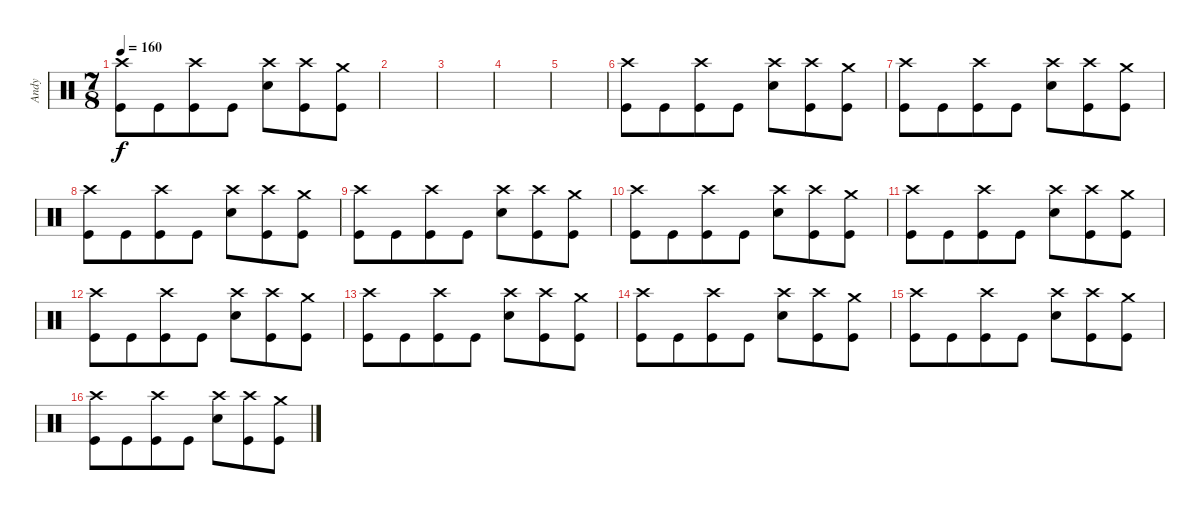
\track ("Andy" "Andy") {instrument percussion}
\staff {score}
\articulation defaults
\ts (7 8)
\tempo 160
\clef neutral
\ks c
("Kick (hit)" "Crash high (hit)").8{dy f} "Kick (hit)".8 ("Kick (hit)" "Crash high (hit)").8 "Kick (hit)".8 ("Snare (hit) 2" "Crash high (hit)").8 ("Kick (hit)" "Crash high (hit)").8 ("Kick (hit)" "Crash medium (hit)").8 |
|
|
|
|
("Kick (hit)" "Crash high (hit)").8 "Kick (hit)".8 ("Kick (hit)" "Crash high (hit)").8 "Kick (hit)".8 ("Snare (hit) 2" "Crash high (hit)").8 ("Kick (hit)" "Crash high (hit)").8 ("Kick (hit)" "Crash medium (hit)").8 |
("Kick (hit)" "Crash high (hit)").8 "Kick (hit)".8 ("Kick (hit)" "Crash high (hit)").8 "Kick (hit)".8 ("Snare (hit) 2" "Crash high (hit)").8 ("Kick (hit)" "Crash high (hit)").8 ("Kick (hit)" "Crash medium (hit)").8 |
("Kick (hit)" "Crash high (hit)").8 "Kick (hit)".8 ("Kick (hit)" "Crash high (hit)").8 "Kick (hit)".8 ("Snare (hit) 2" "Crash high (hit)").8 ("Kick (hit)" "Crash high (hit)").8 ("Kick (hit)" "Crash medium (hit)").8 |
("Kick (hit)" "Crash high (hit)").8 "Kick (hit)".8 ("Kick (hit)" "Crash high (hit)").8 "Kick (hit)".8 ("Snare (hit) 2" "Crash high (hit)").8 ("Kick (hit)" "Crash high (hit)").8 ("Kick (hit)" "Crash medium (hit)").8 |
("Kick (hit)" "Crash high (hit)").8 "Kick (hit)".8 ("Kick (hit)" "Crash high (hit)").8 "Kick (hit)".8 ("Snare (hit) 2" "Crash high (hit)").8 ("Kick (hit)" "Crash high (hit)").8 ("Kick (hit)" "Crash medium (hit)").8 |
("Kick (hit)" "Crash high (hit)").8 "Kick (hit)".8 ("Kick (hit)" "Crash high (hit)").8 "Kick (hit)".8 ("Snare (hit) 2" "Crash high (hit)").8 ("Kick (hit)" "Crash high (hit)").8 ("Kick (hit)" "Crash medium (hit)").8 |
("Kick (hit)" "Crash high (hit)").8 "Kick (hit)".8 ("Kick (hit)" "Crash high (hit)").8 "Kick (hit)".8 ("Snare (hit) 2" "Crash high (hit)").8 ("Kick (hit)" "Crash high (hit)").8 ("Kick (hit)" "Crash medium (hit)").8 |
("Kick (hit)" "Crash high (hit)").8 "Kick (hit)".8 ("Kick (hit)" "Crash high (hit)").8 "Kick (hit)".8 ("Snare (hit) 2" "Crash high (hit)").8 ("Kick (hit)" "Crash high (hit)").8 ("Kick (hit)" "Crash medium (hit)").8 |
("Kick (hit)" "Crash high (hit)").8 "Kick (hit)".8 ("Kick (hit)" "Crash high (hit)").8 "Kick (hit)".8 ("Snare (hit) 2" "Crash high (hit)").8 ("Kick (hit)" "Crash high (hit)").8 ("Kick (hit)" "Crash medium (hit)").8 |
("Kick (hit)" "Crash high (hit)").8 "Kick (hit)".8 ("Kick (hit)" "Crash high (hit)").8 "Kick (hit)".8 ("Snare (hit) 2" "Crash high (hit)").8 ("Kick (hit)" "Crash high (hit)").8 ("Kick (hit)" "Crash medium (hit)").8 |
("Kick (hit)" "Crash high (hit)").8 "Kick (hit)".8 ("Kick (hit)" "Crash high (hit)").8 "Kick (hit)".8 ("Snare (hit) 2" "Crash high (hit)").8 ("Kick (hit)" "Crash high (hit)").8 ("Kick (hit)" "Crash medium (hit)").8
